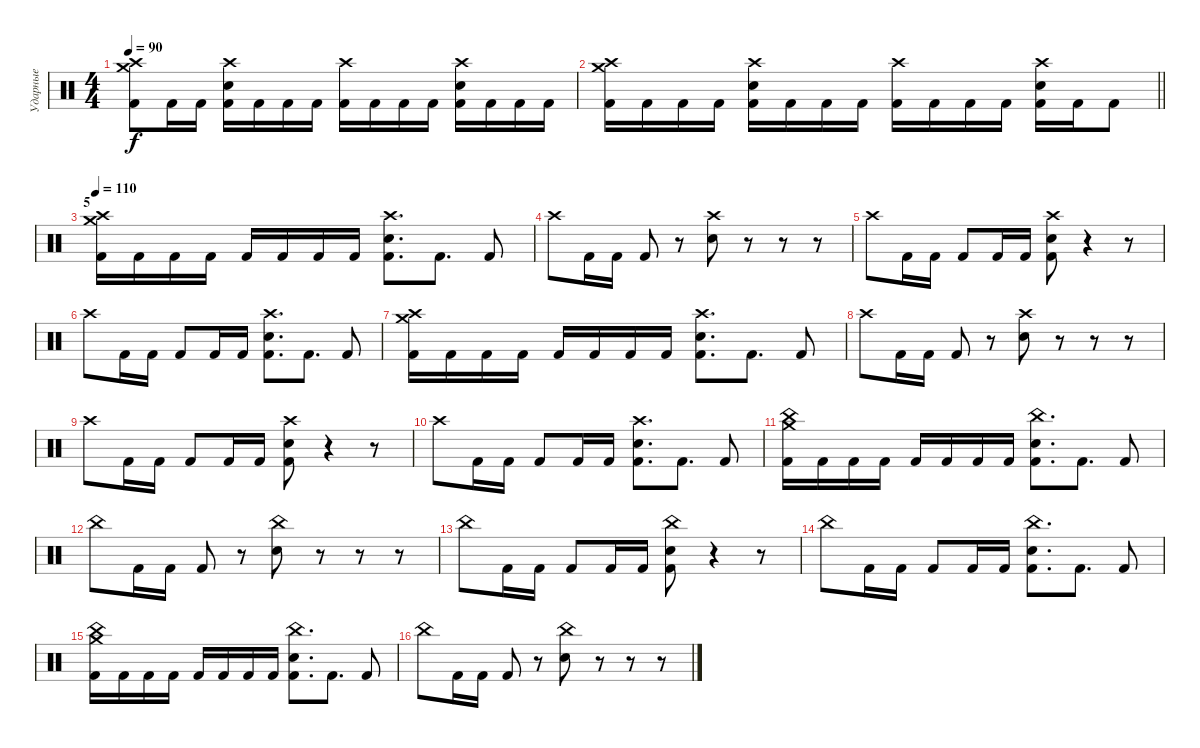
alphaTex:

\track ("Ударные" "Ударные") {instrument percussion}
\staff
\articulation defaults
\ts (4 4)
\tempo 90
\clef neutral
\ks c
("Crash high (hit)" "Crash medium (hit)" "Kick (hit) 2").8{dy f} "Kick (hit) 2".16 "Kick (hit) 2".16 ("Crash high (hit)" "Electric Snare (hit)" "Kick (hit) 2").16 "Kick (hit) 2".16 "Kick (hit) 2".16 "Kick (hit) 2".16 ("Crash high (hit)" "Kick (hit) 2").16 "Kick (hit) 2".16 "Kick (hit) 2".16 "Kick (hit) 2".16 ("Crash high (hit)" "Electric Snare (hit)" "Kick (hit) 2").16 "Kick (hit) 2".16 "Kick (hit) 2".16 "Kick (hit) 2".16 |
\barLineRight lightlight
("Crash high (hit)" "Crash medium (hit)" "Kick (hit) 2").16 "Kick (hit) 2".16 "Kick (hit) 2".16 "Kick (hit) 2".16 ("Crash high (hit)" "Electric Snare (hit)" "Kick (hit) 2").16 "Kick (hit) 2".16 "Kick (hit) 2".16 "Kick (hit) 2".16 ("Crash high (hit)" "Kick (hit) 2").16 "Kick (hit) 2".16 "Kick (hit) 2".16 "Kick (hit) 2".16 ("Crash high (hit)" "Electric Snare (hit)" "Kick (hit) 2").16 "Kick (hit) 2".16 "Kick (hit) 2".8 |
\section ("" "5")
\tempo 110
("Crash high (hit)" "Crash medium (hit)" "Kick (hit) 2").16 "Kick (hit) 2".16 "Kick (hit) 2".16 "Kick (hit) 2".16 "Kick (hit) 2".16 "Kick (hit) 2".16 "Kick (hit) 2".16 "Kick (hit) 2".16 ("Crash high (hit)" "Electric Snare (hit)" "Kick (hit) 2").8{d} "Kick (hit) 2".8{d} "Kick (hit) 2".8 |
"Crash high (hit)".8 "Kick (hit) 2".16 "Kick (hit) 2".16 "Kick (hit) 2".8 r.8 ("Crash high (hit)" "Electric Snare (hit)").8 r.8 r.8 r.8 |
"Crash high (hit)".8 "Kick (hit) 2".16 "Kick (hit) 2".16 "Kick (hit) 2".8 "Kick (hit) 2".16 "Kick (hit) 2".16 ("Crash high (hit)" "Electric Snare (hit)" "Kick (hit) 2").8 r.4 r.8 |
"Crash high (hit)".8 "Kick (hit) 2".16 "Kick (hit) 2".16 "Kick (hit) 2".8 "Kick (hit) 2".16 "Kick (hit) 2".16 ("Crash high (hit)" "Electric Snare (hit)" "Kick (hit) 2").8{d} "Kick (hit) 2".8{d} "Kick (hit) 2".8 |
("Crash high (hit)" "Crash medium (hit)" "Kick (hit) 2").16 "Kick (hit) 2".16 "Kick (hit) 2".16 "Kick (hit) 2".16 "Kick (hit) 2".16 "Kick (hit) 2".16 "Kick (hit) 2".16 "Kick (hit) 2".16 ("Crash high (hit)" "Electric Snare (hit)" "Kick (hit) 2").8{d} "Kick (hit) 2".8{d} "Kick (hit) 2".8 |
"Crash high (hit)".8 "Kick (hit) 2".16 "Kick (hit) 2".16 "Kick (hit) 2".8 r.8 ("Crash high (hit)" "Electric Snare (hit)").8 r.8 r.8 r.8 |
"Crash high (hit)".8 "Kick (hit) 2".16 "Kick (hit) 2".16 "Kick (hit) 2".8 "Kick (hit) 2".16 "Kick (hit) 2".16 ("Crash high (hit)" "Electric Snare (hit)" "Kick (hit) 2").8 r.4 r.8 |
"Crash high (hit)".8 "Kick (hit) 2".16 "Kick (hit) 2".16 "Kick (hit) 2".8 "Kick (hit) 2".16 "Kick (hit) 2".16 ("Crash high (hit)" "Electric Snare (hit)" "Kick (hit) 2").8{d} "Kick (hit) 2".8{d} "Kick (hit) 2".8 |
("China (hit)" "Crash medium (hit)" "Kick (hit) 2").16 "Kick (hit) 2".16 "Kick (hit) 2".16 "Kick (hit) 2".16 "Kick (hit) 2".16 "Kick (hit) 2".16 "Kick (hit) 2".16 "Kick (hit) 2".16 ("China (hit)" "Electric Snare (hit)" "Kick (hit) 2").8{d} "Kick (hit) 2".8{d} "Kick (hit) 2".8 |
"China (hit)".8 "Kick (hit) 2".16 "Kick (hit) 2".16 "Kick (hit) 2".8 r.8 ("China (hit)" "Electric Snare (hit)").8 r.8 r.8 r.8 |
"China (hit)".8 "Kick (hit) 2".16 "Kick (hit) 2".16 "Kick (hit) 2".8 "Kick (hit) 2".16 "Kick (hit) 2".16 ("China (hit)" "Electric Snare (hit)" "Kick (hit) 2").8 r.4 r.8 |
"China (hit)".8 "Kick (hit) 2".16 "Kick (hit) 2".16 "Kick (hit) 2".8 "Kick (hit) 2".16 "Kick (hit) 2".16 ("China (hit)" "Electric Snare (hit)" "Kick (hit) 2").8{d} "Kick (hit) 2".8{d} "Kick (hit) 2".8 |
("China (hit)" "Crash medium (hit)" "Kick (hit) 2").16 "Kick (hit) 2".16 "Kick (hit) 2".16 "Kick (hit) 2".16 "Kick (hit) 2".16 "Kick (hit) 2".16 "Kick (hit) 2".16 "Kick (hit) 2".16 ("China (hit)" "Electric Snare (hit)" "Kick (hit) 2").8{d} "Kick (hit) 2".8{d} "Kick (hit) 2".8 |
"China (hit)".8 "Kick (hit) 2".16 "Kick (hit) 2".16 "Kick (hit) 2".8 r.8 ("China (hit)" "Electric Snare (hit)").8 r.8 r.8 r.8
